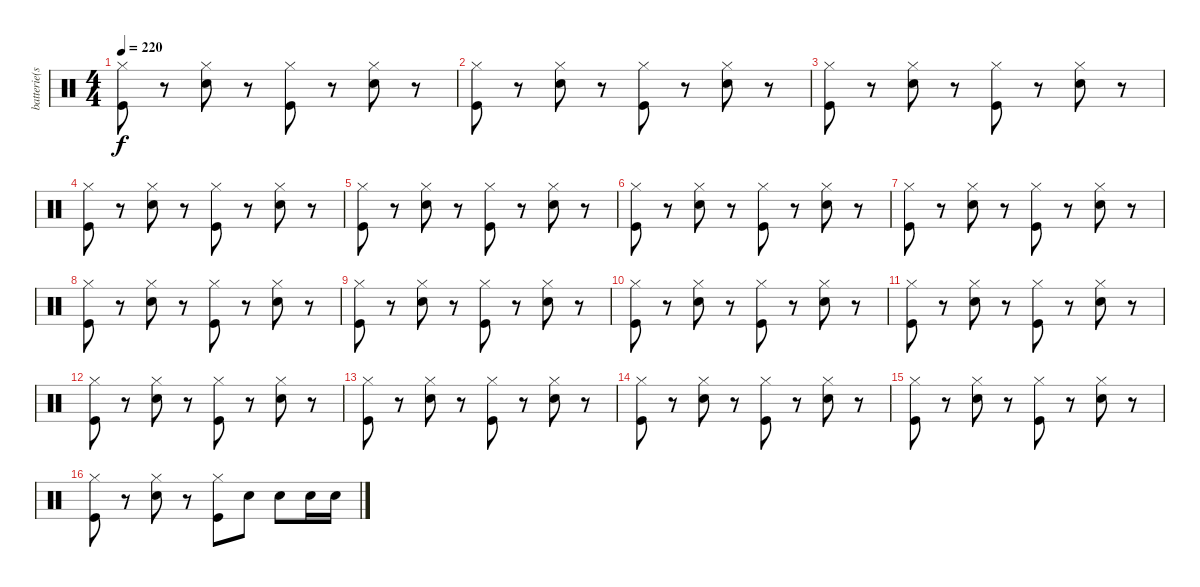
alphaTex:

\track ("batterie(scott)" "batterie(s") {instrument percussion}
\staff {score}
\articulation defaults
\ts (4 4)
\tempo 220
\clef neutral
\ks c
("Hi-Hat (closed)" "Kick (hit)").8{dy f} r.8 ("Hi-Hat (closed)" "Snare (hit) 2").8 r.8 ("Hi-Hat (closed)" "Kick (hit)").8 r.8 ("Hi-Hat (closed)" "Snare (hit) 2").8 r.8 |
("Hi-Hat (closed)" "Kick (hit)").8 r.8 ("Hi-Hat (closed)" "Snare (hit) 2").8 r.8 ("Hi-Hat (closed)" "Kick (hit)").8 r.8 ("Hi-Hat (closed)" "Snare (hit) 2").8 r.8 |
("Hi-Hat (closed)" "Kick (hit)").8 r.8 ("Hi-Hat (closed)" "Snare (hit) 2").8 r.8 ("Hi-Hat (closed)" "Kick (hit)").8 r.8 ("Hi-Hat (closed)" "Snare (hit) 2").8 r.8 |
("Hi-Hat (closed)" "Kick (hit)").8 r.8 ("Hi-Hat (closed)" "Snare (hit) 2").8 r.8 ("Hi-Hat (closed)" "Kick (hit)").8 r.8 ("Hi-Hat (closed)" "Snare (hit) 2").8 r.8 |
("Hi-Hat (closed)" "Kick (hit)").8 r.8 ("Hi-Hat (closed)" "Snare (hit) 2").8 r.8 ("Hi-Hat (closed)" "Kick (hit)").8 r.8 ("Hi-Hat (closed)" "Snare (hit) 2").8 r.8 |
("Hi-Hat (closed)" "Kick (hit)").8 r.8 ("Hi-Hat (closed)" "Snare (hit) 2").8 r.8 ("Hi-Hat (closed)" "Kick (hit)").8 r.8 ("Hi-Hat (closed)" "Snare (hit) 2").8 r.8 |
("Hi-Hat (closed)" "Kick (hit)").8 r.8 ("Hi-Hat (closed)" "Snare (hit) 2").8 r.8 ("Hi-Hat (closed)" "Kick (hit)").8 r.8 ("Hi-Hat (closed)" "Snare (hit) 2").8 r.8 |
("Hi-Hat (closed)" "Kick (hit)").8 r.8 ("Hi-Hat (closed)" "Snare (hit) 2").8 r.8 ("Hi-Hat (closed)" "Kick (hit)").8 r.8 ("Hi-Hat (closed)" "Snare (hit) 2").8 r.8 |
("Hi-Hat (closed)" "Kick (hit)").8 r.8 ("Hi-Hat (closed)" "Snare (hit) 2").8 r.8 ("Hi-Hat (closed)" "Kick (hit)").8 r.8 ("Hi-Hat (closed)" "Snare (hit) 2").8 r.8 |
("Hi-Hat (closed)" "Kick (hit)").8 r.8 ("Hi-Hat (closed)" "Snare (hit) 2").8 r.8 ("Hi-Hat (closed)" "Kick (hit)").8 r.8 ("Hi-Hat (closed)" "Snare (hit) 2").8 r.8 |
("Hi-Hat (closed)" "Kick (hit)").8 r.8 ("Hi-Hat (closed)" "Snare (hit) 2").8 r.8 ("Hi-Hat (closed)" "Kick (hit)").8 r.8 ("Hi-Hat (closed)" "Snare (hit) 2").8 r.8 |
("Hi-Hat (closed)" "Kick (hit)").8 r.8 ("Hi-Hat (closed)" "Snare (hit) 2").8 r.8 ("Hi-Hat (closed)" "Kick (hit)").8 r.8 ("Hi-Hat (closed)" "Snare (hit) 2").8 r.8 |
("Hi-Hat (closed)" "Kick (hit)").8 r.8 ("Hi-Hat (closed)" "Snare (hit) 2").8 r.8 ("Hi-Hat (closed)" "Kick (hit)").8 r.8 ("Hi-Hat (closed)" "Snare (hit) 2").8 r.8 |
("Hi-Hat (closed)" "Kick (hit)").8 r.8 ("Hi-Hat (closed)" "Snare (hit) 2").8 r.8 ("Hi-Hat (closed)" "Kick (hit)").8 r.8 ("Hi-Hat (closed)" "Snare (hit) 2").8 r.8 |
("Hi-Hat (closed)" "Kick (hit)").8 r.8 ("Hi-Hat (closed)" "Snare (hit) 2").8 r.8 ("Hi-Hat (closed)" "Kick (hit)").8 r.8 ("Hi-Hat (closed)" "Snare (hit) 2").8 r.8 |
("Hi-Hat (closed)" "Kick (hit)").8 r.8 ("Hi-Hat (closed)" "Snare (hit) 2").8 r.8 ("Hi-Hat (closed)" "Kick (hit)").8 "Snare (hit) 2".8 "Snare (hit) 2".8 "Snare (hit) 2".16 "Snare (hit) 2".16
